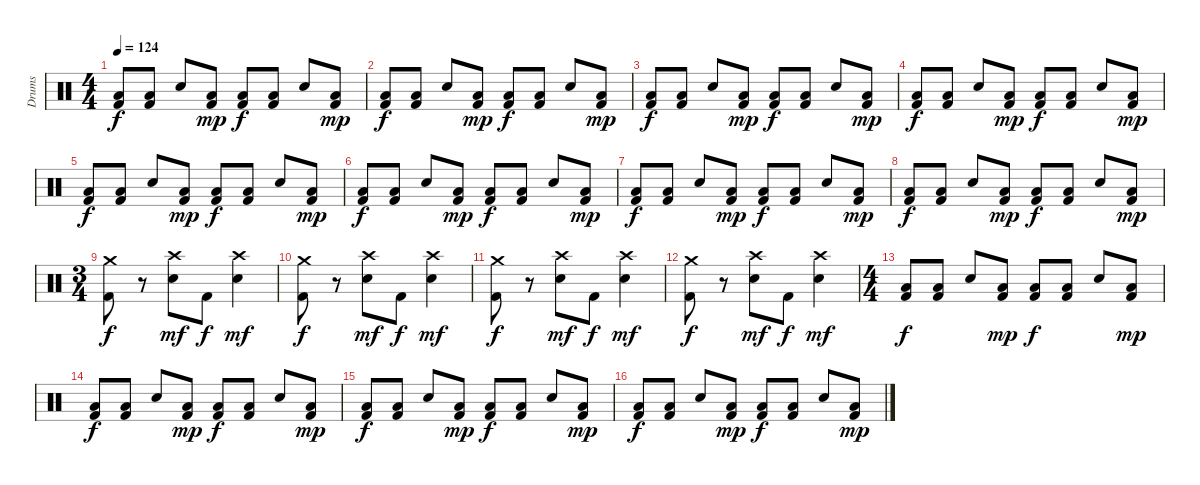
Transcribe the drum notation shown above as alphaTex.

\track ("Drums" "Drums") {instrument percussion}
\staff {score}
\articulation defaults
\ts (4 4)
\tempo 124
\clef neutral
\ks c
("Low Tom (hit)" "Kick (hit) 2").8{dy f} ("Low Tom (hit)" "Kick (hit) 2").8 "Snare (hit) 2".8 ("Low Tom (hit)" "Kick (hit) 2").8{dy mp} ("Low Tom (hit)" "Kick (hit) 2").8{dy f} ("Low Tom (hit)" "Kick (hit) 2").8 "Snare (hit) 2".8 ("Low Tom (hit)" "Kick (hit) 2").8{dy mp} |
("Low Tom (hit)" "Kick (hit) 2").8{dy f} ("Low Tom (hit)" "Kick (hit) 2").8 "Snare (hit) 2".8 ("Low Tom (hit)" "Kick (hit) 2").8{dy mp} ("Low Tom (hit)" "Kick (hit) 2").8{dy f} ("Low Tom (hit)" "Kick (hit) 2").8 "Snare (hit) 2".8 ("Low Tom (hit)" "Kick (hit) 2").8{dy mp} |
("Low Tom (hit)" "Kick (hit) 2").8{dy f} ("Low Tom (hit)" "Kick (hit) 2").8 "Snare (hit) 2".8 ("Low Tom (hit)" "Kick (hit) 2").8{dy mp} ("Low Tom (hit)" "Kick (hit) 2").8{dy f} ("Low Tom (hit)" "Kick (hit) 2").8 "Snare (hit) 2".8 ("Low Tom (hit)" "Kick (hit) 2").8{dy mp} |
("Low Tom (hit)" "Kick (hit) 2").8{dy f} ("Low Tom (hit)" "Kick (hit) 2").8 "Snare (hit) 2".8 ("Low Tom (hit)" "Kick (hit) 2").8{dy mp} ("Low Tom (hit)" "Kick (hit) 2").8{dy f} ("Low Tom (hit)" "Kick (hit) 2").8 "Snare (hit) 2".8 ("Low Tom (hit)" "Kick (hit) 2").8{dy mp} |
("Low Tom (hit)" "Kick (hit) 2").8{dy f} ("Low Tom (hit)" "Kick (hit) 2").8 "Snare (hit) 2".8 ("Low Tom (hit)" "Kick (hit) 2").8{dy mp} ("Low Tom (hit)" "Kick (hit) 2").8{dy f} ("Low Tom (hit)" "Kick (hit) 2").8 "Snare (hit) 2".8 ("Low Tom (hit)" "Kick (hit) 2").8{dy mp} |
("Low Tom (hit)" "Kick (hit) 2").8{dy f} ("Low Tom (hit)" "Kick (hit) 2").8 "Snare (hit) 2".8 ("Low Tom (hit)" "Kick (hit) 2").8{dy mp} ("Low Tom (hit)" "Kick (hit) 2").8{dy f} ("Low Tom (hit)" "Kick (hit) 2").8 "Snare (hit) 2".8 ("Low Tom (hit)" "Kick (hit) 2").8{dy mp} |
("Low Tom (hit)" "Kick (hit) 2").8{dy f} ("Low Tom (hit)" "Kick (hit) 2").8 "Snare (hit) 2".8 ("Low Tom (hit)" "Kick (hit) 2").8{dy mp} ("Low Tom (hit)" "Kick (hit) 2").8{dy f} ("Low Tom (hit)" "Kick (hit) 2").8 "Snare (hit) 2".8 ("Low Tom (hit)" "Kick (hit) 2").8{dy mp} |
("Low Tom (hit)" "Kick (hit) 2").8{dy f} ("Low Tom (hit)" "Kick (hit) 2").8 "Snare (hit) 2".8 ("Low Tom (hit)" "Kick (hit) 2").8{dy mp} ("Low Tom (hit)" "Kick (hit) 2").8{dy f} ("Low Tom (hit)" "Kick (hit) 2").8 "Snare (hit) 2".8 ("Low Tom (hit)" "Kick (hit) 2").8{dy mp} |
\ts (3 4)
("Crash medium (hit)" "Kick (hit) 2").8{dy f} r.8 ("Crash high (hit)" "Snare (hit) 2").8{dy mf} "Kick (hit) 2".8{dy f} ("Crash high (hit)" "Snare (hit) 2").4{dy mf} |
("Crash medium (hit)" "Kick (hit) 2").8{dy f} r.8 ("Crash high (hit)" "Snare (hit) 2").8{dy mf} "Kick (hit) 2".8{dy f} ("Crash high (hit)" "Snare (hit) 2").4{dy mf} |
("Crash medium (hit)" "Kick (hit) 2").8{dy f} r.8 ("Crash high (hit)" "Snare (hit) 2").8{dy mf} "Kick (hit) 2".8{dy f} ("Crash high (hit)" "Snare (hit) 2").4{dy mf} |
("Crash medium (hit)" "Kick (hit) 2").8{dy f} r.8 ("Crash high (hit)" "Snare (hit) 2").8{dy mf} "Kick (hit) 2".8{dy f} ("Crash high (hit)" "Snare (hit) 2").4{dy mf} |
\ts (4 4)
("Low Tom (hit)" "Kick (hit) 2").8{dy f} ("Low Tom (hit)" "Kick (hit) 2").8 "Snare (hit) 2".8 ("Low Tom (hit)" "Kick (hit) 2").8{dy mp} ("Low Tom (hit)" "Kick (hit) 2").8{dy f} ("Low Tom (hit)" "Kick (hit) 2").8 "Snare (hit) 2".8 ("Low Tom (hit)" "Kick (hit) 2").8{dy mp} |
("Low Tom (hit)" "Kick (hit) 2").8{dy f} ("Low Tom (hit)" "Kick (hit) 2").8 "Snare (hit) 2".8 ("Low Tom (hit)" "Kick (hit) 2").8{dy mp} ("Low Tom (hit)" "Kick (hit) 2").8{dy f} ("Low Tom (hit)" "Kick (hit) 2").8 "Snare (hit) 2".8 ("Low Tom (hit)" "Kick (hit) 2").8{dy mp} |
("Low Tom (hit)" "Kick (hit) 2").8{dy f} ("Low Tom (hit)" "Kick (hit) 2").8 "Snare (hit) 2".8 ("Low Tom (hit)" "Kick (hit) 2").8{dy mp} ("Low Tom (hit)" "Kick (hit) 2").8{dy f} ("Low Tom (hit)" "Kick (hit) 2").8 "Snare (hit) 2".8 ("Low Tom (hit)" "Kick (hit) 2").8{dy mp} |
("Low Tom (hit)" "Kick (hit) 2").8{dy f} ("Low Tom (hit)" "Kick (hit) 2").8 "Snare (hit) 2".8 ("Low Tom (hit)" "Kick (hit) 2").8{dy mp} ("Low Tom (hit)" "Kick (hit) 2").8{dy f} ("Low Tom (hit)" "Kick (hit) 2").8 "Snare (hit) 2".8 ("Low Tom (hit)" "Kick (hit) 2").8{dy mp}
